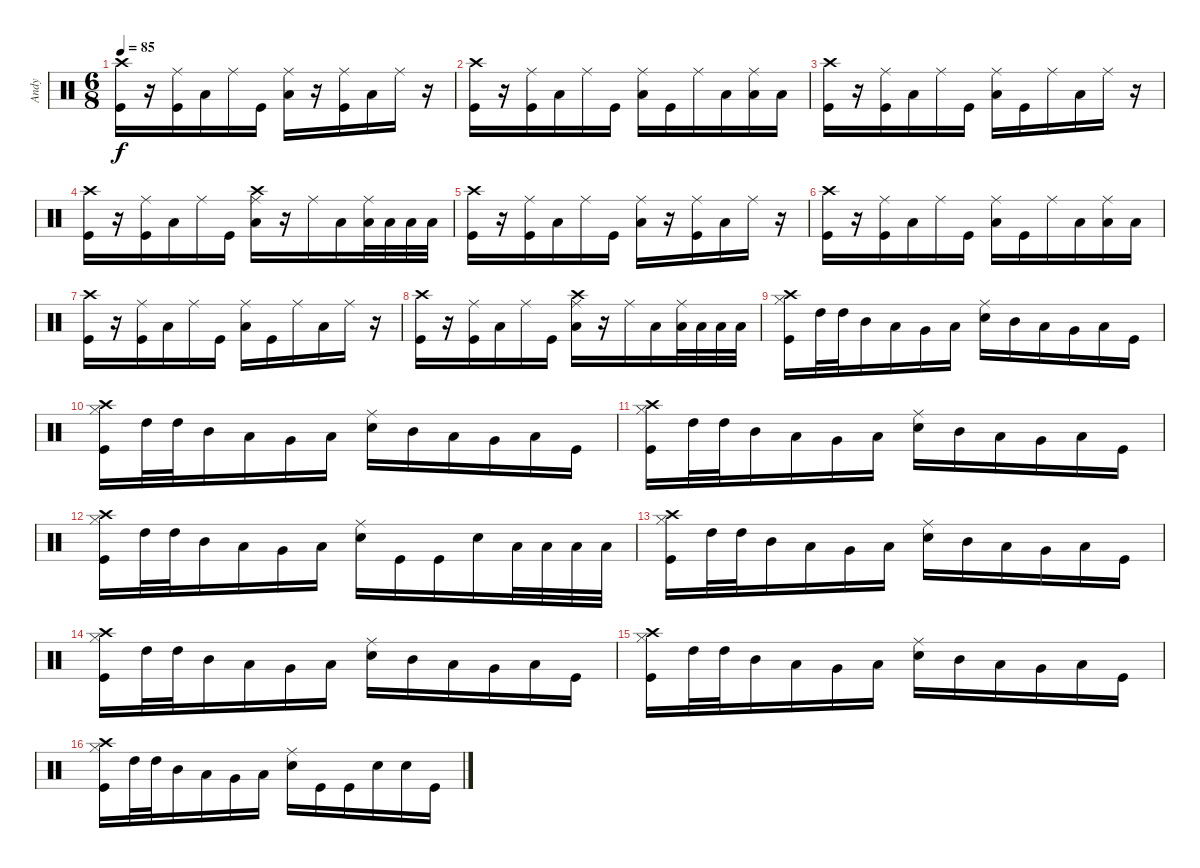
\track ("Andy" "Andy") {instrument percussion}
\staff {score}
\articulation defaults
\ts (6 8)
\tempo 85
\clef neutral
\ks c
("Crash high (hit)" "Kick (hit)").16{dy f} r.16 ("Ride (middle)" "Kick (hit)").16 "Low Tom (hit)".16 "Ride (middle)".16 "Kick (hit)".16 ("Ride (middle)" "Low Tom (hit)").16 r.16 ("Ride (middle)" "Kick (hit)").16 "Low Tom (hit)".16 "Ride (middle)".16 r.16 |
("Crash high (hit)" "Kick (hit)").16 r.16 ("Ride (middle)" "Kick (hit)").16 "Low Tom (hit)".16 "Ride (middle)".16 "Kick (hit)".16 ("Ride (middle)" "Low Tom (hit)").16 "Kick (hit)".16 "Ride (middle)".16 "Low Tom (hit)".16 ("Ride (middle)" "Low Floor Tom (hit)").16 "Low Floor Tom (hit)".16 |
("Crash high (hit)" "Kick (hit)").16 r.16 ("Ride (middle)" "Kick (hit)").16 "Low Tom (hit)".16 "Ride (middle)".16 "Kick (hit)".16 ("Ride (middle)" "Low Tom (hit)").16 "Kick (hit)".16 "Ride (middle)".16 "Low Tom (hit)".16 "Ride (middle)".16 r.16 |
("Crash high (hit)" "Kick (hit)").16 r.16 ("Ride (middle)" "Kick (hit)").16 "Low Tom (hit)".16 "Ride (middle)".16 "Kick (hit)".16 ("Ride (middle)" "Low Tom (hit)" "Crash high (hit)").16 r.16 "Ride (middle)".16 "Low Tom (hit)".16 ("Ride (middle)" "Low Floor Tom (hit)").32 "Low Floor Tom (hit)".32 "Low Floor Tom (hit)".32 "Low Floor Tom (hit)".32 |
("Crash high (hit)" "Kick (hit)").16 r.16 ("Ride (middle)" "Kick (hit)").16 "Low Tom (hit)".16 "Ride (middle)".16 "Kick (hit)".16 ("Ride (middle)" "Low Tom (hit)").16 r.16 ("Ride (middle)" "Kick (hit)").16 "Low Tom (hit)".16 "Ride (middle)".16 r.16 |
("Crash high (hit)" "Kick (hit)").16 r.16 ("Ride (middle)" "Kick (hit)").16 "Low Tom (hit)".16 "Ride (middle)".16 "Kick (hit)".16 ("Ride (middle)" "Low Tom (hit)").16 "Kick (hit)".16 "Ride (middle)".16 "Low Tom (hit)".16 ("Ride (middle)" "Low Floor Tom (hit)").16 "Low Floor Tom (hit)".16 |
("Crash high (hit)" "Kick (hit)").16 r.16 ("Ride (middle)" "Kick (hit)").16 "Low Tom (hit)".16 "Ride (middle)".16 "Kick (hit)".16 ("Ride (middle)" "Low Tom (hit)").16 "Kick (hit)".16 "Ride (middle)".16 "Low Tom (hit)".16 "Ride (middle)".16 r.16 |
("Crash high (hit)" "Kick (hit)").16 r.16 ("Ride (middle)" "Kick (hit)").16 "Low Tom (hit)".16 "Ride (middle)".16 "Kick (hit)".16 ("Ride (middle)" "Low Tom (hit)" "Crash high (hit)").16 r.16 "Ride (middle)".16 "Low Tom (hit)".16 ("Ride (middle)" "Low Floor Tom (hit)").32 "Low Floor Tom (hit)".32 "Low Floor Tom (hit)".32 "Low Floor Tom (hit)".32 |
("Kick (hit)" "Crash high (hit)" "Hi-Hat (closed)").16 "High Tom (hit)".32 "High Tom (hit)".32 "Mid Tom (hit)".16 "Low Tom (hit)".16 "Very Low Tom (hit)".16 "Low Floor Tom (hit)".16 ("Snare (hit) 2" "Ride (middle)").16 "Mid Tom (hit)".16 "Low Tom (hit)".16 "Very Low Tom (hit)".16 "Low Floor Tom (hit)".16 "Kick (hit)".16 |
("Kick (hit)" "Crash high (hit)" "Hi-Hat (closed)").16 "High Tom (hit)".32 "High Tom (hit)".32 "Mid Tom (hit)".16 "Low Tom (hit)".16 "Very Low Tom (hit)".16 "Low Floor Tom (hit)".16 ("Snare (hit) 2" "Ride (middle)").16 "Mid Tom (hit)".16 "Low Tom (hit)".16 "Very Low Tom (hit)".16 "Low Floor Tom (hit)".16 "Kick (hit)".16 |
("Kick (hit)" "Crash high (hit)" "Hi-Hat (closed)").16 "High Tom (hit)".32 "High Tom (hit)".32 "Mid Tom (hit)".16 "Low Tom (hit)".16 "Very Low Tom (hit)".16 "Low Floor Tom (hit)".16 ("Snare (hit) 2" "Ride (middle)").16 "Mid Tom (hit)".16 "Low Tom (hit)".16 "Very Low Tom (hit)".16 "Low Floor Tom (hit)".16 "Kick (hit)".16 |
("Kick (hit)" "Crash high (hit)" "Hi-Hat (closed)").16 "High Tom (hit)".32 "High Tom (hit)".32 "Mid Tom (hit)".16 "Low Tom (hit)".16 "Very Low Tom (hit)".16 "Low Floor Tom (hit)".16 ("Snare (hit) 2" "Ride (middle)").16 "Kick (hit)".16 "Kick (hit)".16 "Snare (hit) 2".16 "Low Floor Tom (hit)".32 "Low Floor Tom (hit)".32 "Low Floor Tom (hit)".32 "Low Floor Tom (hit)".32 |
("Kick (hit)" "Crash high (hit)" "Hi-Hat (closed)").16 "High Tom (hit)".32 "High Tom (hit)".32 "Mid Tom (hit)".16 "Low Tom (hit)".16 "Very Low Tom (hit)".16 "Low Floor Tom (hit)".16 ("Snare (hit) 2" "Ride (middle)").16 "Mid Tom (hit)".16 "Low Tom (hit)".16 "Very Low Tom (hit)".16 "Low Floor Tom (hit)".16 "Kick (hit)".16 |
("Kick (hit)" "Crash high (hit)" "Hi-Hat (closed)").16 "High Tom (hit)".32 "High Tom (hit)".32 "Mid Tom (hit)".16 "Low Tom (hit)".16 "Very Low Tom (hit)".16 "Low Floor Tom (hit)".16 ("Snare (hit) 2" "Ride (middle)").16 "Mid Tom (hit)".16 "Low Tom (hit)".16 "Very Low Tom (hit)".16 "Low Floor Tom (hit)".16 "Kick (hit)".16 |
("Kick (hit)" "Crash high (hit)" "Hi-Hat (closed)").16 "High Tom (hit)".32 "High Tom (hit)".32 "Mid Tom (hit)".16 "Low Tom (hit)".16 "Very Low Tom (hit)".16 "Low Floor Tom (hit)".16 ("Snare (hit) 2" "Ride (middle)").16 "Mid Tom (hit)".16 "Low Tom (hit)".16 "Very Low Tom (hit)".16 "Low Floor Tom (hit)".16 "Kick (hit)".16 |
("Kick (hit)" "Crash high (hit)" "Hi-Hat (closed)").16 "High Tom (hit)".32 "High Tom (hit)".32 "Mid Tom (hit)".16 "Low Tom (hit)".16 "Very Low Tom (hit)".16 "Low Floor Tom (hit)".16 ("Snare (hit) 2" "Ride (middle)").16 "Kick (hit)".16 "Kick (hit)".16 "Snare (hit) 2".16 "Snare (hit) 2".16 "Kick (hit)".16
